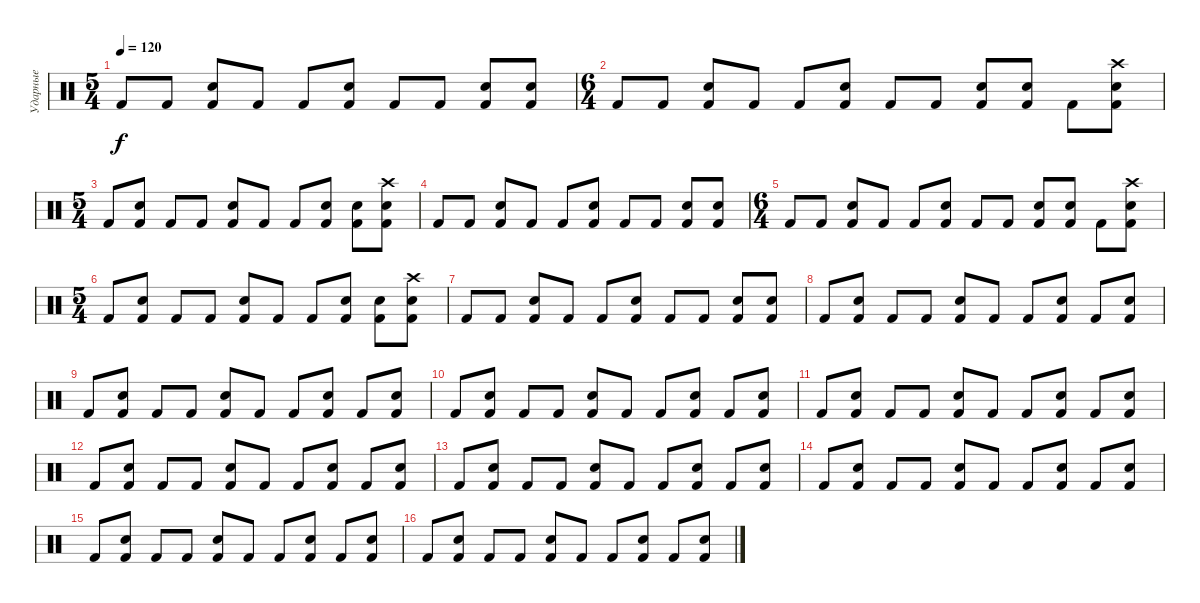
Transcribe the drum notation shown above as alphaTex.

\track ("Ударные" "Ударные") {instrument percussion}
\staff {score}
\articulation defaults
\ts (5 4)
\tempo 120
\clef neutral
\ks c "Kick (hit) 2".8{dy f} "Kick (hit) 2".8
("Kick (hit) 2" "Electric Snare (hit)").8 "Kick (hit) 2".8 "Kick (hit) 2".8 ("Kick (hit) 2" "Electric Snare (hit)").8 "Kick (hit) 2".8 "Kick (hit) 2".8 ("Kick (hit) 2" "Electric Snare (hit)").8 ("Kick (hit) 2" "Electric Snare (hit)").8 |
\ts (6 4)
"Kick (hit) 2".8 "Kick (hit) 2".8 ("Kick (hit) 2" "Electric Snare (hit)").8 "Kick (hit) 2".8 "Kick (hit) 2".8 ("Kick (hit) 2" "Electric Snare (hit)").8 "Kick (hit) 2".8 "Kick (hit) 2".8 ("Kick (hit) 2" "Electric Snare (hit)").8 ("Kick (hit) 2" "Electric Snare (hit)").8 "Kick (hit) 2".8 ("Kick (hit) 2" "Electric Snare (hit)" "Crash high (hit)").8 |
\ts (5 4)
"Kick (hit) 2".8 ("Kick (hit) 2" "Electric Snare (hit)").8 "Kick (hit) 2".8 "Kick (hit) 2".8 ("Kick (hit) 2" "Electric Snare (hit)").8 "Kick (hit) 2".8 "Kick (hit) 2".8 ("Kick (hit) 2" "Electric Snare (hit)").8 ("Kick (hit) 2" "Electric Snare (hit)").8 ("Kick (hit) 2" "Electric Snare (hit)" "Crash high (hit)").8 |
"Kick (hit) 2".8 "Kick (hit) 2".8 ("Kick (hit) 2" "Electric Snare (hit)").8 "Kick (hit) 2".8 "Kick (hit) 2".8 ("Kick (hit) 2" "Electric Snare (hit)").8 "Kick (hit) 2".8 "Kick (hit) 2".8 ("Kick (hit) 2" "Electric Snare (hit)").8 ("Kick (hit) 2" "Electric Snare (hit)").8 |
\ts (6 4)
"Kick (hit) 2".8 "Kick (hit) 2".8 ("Kick (hit) 2" "Electric Snare (hit)").8 "Kick (hit) 2".8 "Kick (hit) 2".8 ("Kick (hit) 2" "Electric Snare (hit)").8 "Kick (hit) 2".8 "Kick (hit) 2".8 ("Kick (hit) 2" "Electric Snare (hit)").8 ("Kick (hit) 2" "Electric Snare (hit)").8 "Kick (hit) 2".8 ("Kick (hit) 2" "Electric Snare (hit)" "Crash high (hit)").8 |
\ts (5 4)
"Kick (hit) 2".8 ("Kick (hit) 2" "Electric Snare (hit)").8 "Kick (hit) 2".8 "Kick (hit) 2".8 ("Kick (hit) 2" "Electric Snare (hit)").8 "Kick (hit) 2".8 "Kick (hit) 2".8 ("Kick (hit) 2" "Electric Snare (hit)").8 ("Kick (hit) 2" "Electric Snare (hit)").8 ("Kick (hit) 2" "Electric Snare (hit)" "Crash high (hit)").8 |
"Kick (hit) 2".8 "Kick (hit) 2".8 ("Kick (hit) 2" "Electric Snare (hit)").8 "Kick (hit) 2".8 "Kick (hit) 2".8 ("Kick (hit) 2" "Electric Snare (hit)").8 "Kick (hit) 2".8 "Kick (hit) 2".8 ("Kick (hit) 2" "Electric Snare (hit)").8 ("Kick (hit) 2" "Electric Snare (hit)").8 |
"Kick (hit) 2".8 ("Kick (hit) 2" "Electric Snare (hit)").8 "Kick (hit) 2".8 "Kick (hit) 2".8 ("Kick (hit) 2" "Electric Snare (hit)").8 "Kick (hit) 2".8 "Kick (hit) 2".8 ("Kick (hit) 2" "Electric Snare (hit)").8 "Kick (hit) 2".8 ("Kick (hit) 2" "Electric Snare (hit)").8 |
"Kick (hit) 2".8 ("Kick (hit) 2" "Electric Snare (hit)").8 "Kick (hit) 2".8 "Kick (hit) 2".8 ("Kick (hit) 2" "Electric Snare (hit)").8 "Kick (hit) 2".8 "Kick (hit) 2".8 ("Kick (hit) 2" "Electric Snare (hit)").8 "Kick (hit) 2".8 ("Kick (hit) 2" "Electric Snare (hit)").8 |
"Kick (hit) 2".8 ("Kick (hit) 2" "Electric Snare (hit)").8 "Kick (hit) 2".8 "Kick (hit) 2".8 ("Kick (hit) 2" "Electric Snare (hit)").8 "Kick (hit) 2".8 "Kick (hit) 2".8 ("Kick (hit) 2" "Electric Snare (hit)").8 "Kick (hit) 2".8 ("Kick (hit) 2" "Electric Snare (hit)").8 |
"Kick (hit) 2".8 ("Kick (hit) 2" "Electric Snare (hit)").8 "Kick (hit) 2".8 "Kick (hit) 2".8 ("Kick (hit) 2" "Electric Snare (hit)").8 "Kick (hit) 2".8 "Kick (hit) 2".8 ("Kick (hit) 2" "Electric Snare (hit)").8 "Kick (hit) 2".8 ("Kick (hit) 2" "Electric Snare (hit)").8 |
"Kick (hit) 2".8 ("Kick (hit) 2" "Electric Snare (hit)").8 "Kick (hit) 2".8 "Kick (hit) 2".8 ("Kick (hit) 2" "Electric Snare (hit)").8 "Kick (hit) 2".8 "Kick (hit) 2".8 ("Kick (hit) 2" "Electric Snare (hit)").8 "Kick (hit) 2".8 ("Kick (hit) 2" "Electric Snare (hit)").8 |
"Kick (hit) 2".8 ("Kick (hit) 2" "Electric Snare (hit)").8 "Kick (hit) 2".8 "Kick (hit) 2".8 ("Kick (hit) 2" "Electric Snare (hit)").8 "Kick (hit) 2".8 "Kick (hit) 2".8 ("Kick (hit) 2" "Electric Snare (hit)").8 "Kick (hit) 2".8 ("Kick (hit) 2" "Electric Snare (hit)").8 |
"Kick (hit) 2".8 ("Kick (hit) 2" "Electric Snare (hit)").8 "Kick (hit) 2".8 "Kick (hit) 2".8 ("Kick (hit) 2" "Electric Snare (hit)").8 "Kick (hit) 2".8 "Kick (hit) 2".8 ("Kick (hit) 2" "Electric Snare (hit)").8 "Kick (hit) 2".8 ("Kick (hit) 2" "Electric Snare (hit)").8 |
"Kick (hit) 2".8 ("Kick (hit) 2" "Electric Snare (hit)").8 "Kick (hit) 2".8 "Kick (hit) 2".8 ("Kick (hit) 2" "Electric Snare (hit)").8 "Kick (hit) 2".8 "Kick (hit) 2".8 ("Kick (hit) 2" "Electric Snare (hit)").8 "Kick (hit) 2".8 ("Kick (hit) 2" "Electric Snare (hit)").8 |
"Kick (hit) 2".8 ("Kick (hit) 2" "Electric Snare (hit)").8 "Kick (hit) 2".8 "Kick (hit) 2".8 ("Kick (hit) 2" "Electric Snare (hit)").8 "Kick (hit) 2".8 "Kick (hit) 2".8 ("Kick (hit) 2" "Electric Snare (hit)").8 "Kick (hit) 2".8 ("Kick (hit) 2" "Electric Snare (hit)").8
